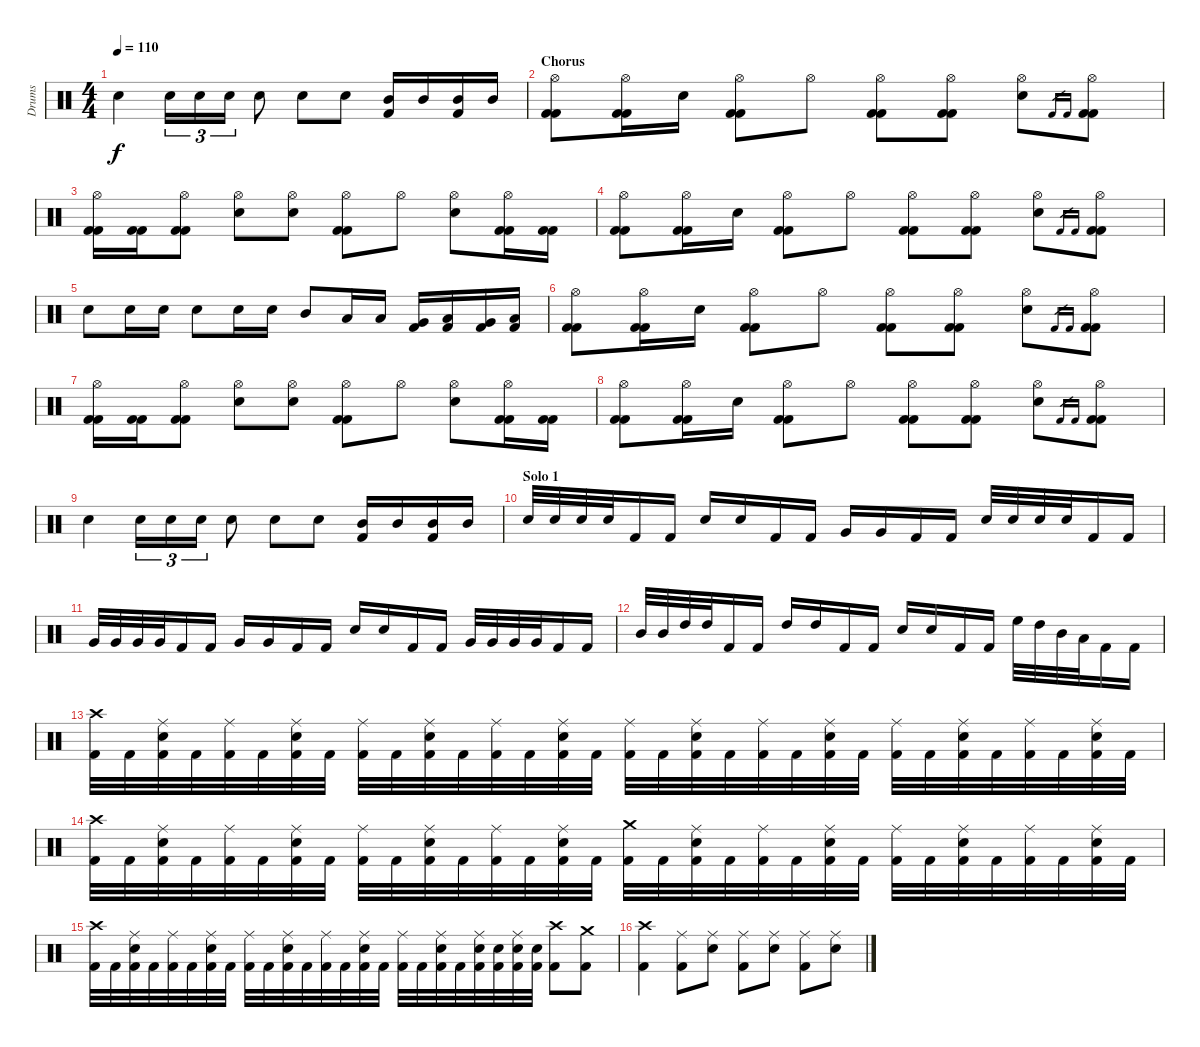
\track ("Drums" "Drums") {instrument percussion}
\staff {score}
\articulation defaults
\ts (4 4)
\tempo 110
\clef neutral
\ks c "Snare (hit) 2".4{dy f} "Snare (hit) 2".16{tu (3 2)} "Snare (hit) 2".16{tu (3 2)} "Snare (hit) 2".16{tu (3 2)} "Snare (hit) 2".8 "Snare (hit) 2".8 "Snare (hit) 2".8
("Mid Tom (hit)" "Kick (hit) 2").16 "Mid Tom (hit)".16 ("Mid Tom (hit)" "Kick (hit) 2").16 "Mid Tom (hit)".16 |
\section ("" "Chorus")
("Hi-Hat (open)" "Kick (hit) 2" "Kick (hit) 2").8 ("Hi-Hat (open)" "Kick (hit) 2" "Kick (hit) 2").16 "Electric Snare (hit)".16 ("Hi-Hat (open)" "Kick (hit) 2" "Kick (hit) 2").8 "Hi-Hat (open)".8 ("Hi-Hat (open)" "Kick (hit) 2" "Kick (hit) 2").8 ("Hi-Hat (open)" "Kick (hit) 2" "Kick (hit) 2").8 ("Hi-Hat (open)" "Electric Snare (hit)").8 "Kick (hit) 2".16{gr} "Kick (hit) 2".16{gr} ("Hi-Hat (open)" "Kick (hit) 2" "Kick (hit) 2").8 |
("Hi-Hat (open)" "Kick (hit) 2" "Kick (hit) 2").16 ("Kick (hit) 2" "Kick (hit) 2").16 ("Hi-Hat (open)" "Kick (hit) 2" "Kick (hit) 2").8 ("Hi-Hat (open)" "Electric Snare (hit)").8 ("Hi-Hat (open)" "Electric Snare (hit)").8 ("Hi-Hat (open)" "Kick (hit) 2" "Kick (hit) 2").8 "Hi-Hat (open)".8 ("Hi-Hat (open)" "Electric Snare (hit)").8 ("Hi-Hat (open)" "Kick (hit) 2" "Kick (hit) 2").16 ("Kick (hit) 2" "Kick (hit) 2").16 |
("Hi-Hat (open)" "Kick (hit) 2" "Kick (hit) 2").8 ("Hi-Hat (open)" "Kick (hit) 2" "Kick (hit) 2").16 "Electric Snare (hit)".16 ("Hi-Hat (open)" "Kick (hit) 2" "Kick (hit) 2").8 "Hi-Hat (open)".8 ("Hi-Hat (open)" "Kick (hit) 2" "Kick (hit) 2").8 ("Hi-Hat (open)" "Kick (hit) 2" "Kick (hit) 2").8 ("Hi-Hat (open)" "Electric Snare (hit)").8 "Kick (hit) 2".16{gr} "Kick (hit) 2".16{gr} ("Hi-Hat (open)" "Kick (hit) 2" "Kick (hit) 2").8 |
"Snare (hit) 2".8 "Snare (hit) 2".16 "Snare (hit) 2".16 "Snare (hit) 2".8 "Snare (hit) 2".16 "Snare (hit) 2".16 "Mid Tom (hit)".8 "Low Tom (hit)".16 "Low Tom (hit)".16 ("Very Low Tom (hit)" "Kick (hit) 2").16 ("Low Floor Tom (hit)" "Kick (hit) 2").16 ("Very Low Tom (hit)" "Kick (hit) 2").16 ("Low Floor Tom (hit)" "Kick (hit) 2").16 |
("Hi-Hat (open)" "Kick (hit) 2" "Kick (hit) 2").8 ("Hi-Hat (open)" "Kick (hit) 2" "Kick (hit) 2").16 "Electric Snare (hit)".16 ("Hi-Hat (open)" "Kick (hit) 2" "Kick (hit) 2").8 "Hi-Hat (open)".8 ("Hi-Hat (open)" "Kick (hit) 2" "Kick (hit) 2").8 ("Hi-Hat (open)" "Kick (hit) 2" "Kick (hit) 2").8 ("Hi-Hat (open)" "Electric Snare (hit)").8 "Kick (hit) 2".16{gr} "Kick (hit) 2".16{gr} ("Hi-Hat (open)" "Kick (hit) 2" "Kick (hit) 2").8 |
("Hi-Hat (open)" "Kick (hit) 2" "Kick (hit) 2").16 ("Kick (hit) 2" "Kick (hit) 2").16 ("Hi-Hat (open)" "Kick (hit) 2" "Kick (hit) 2").8 ("Hi-Hat (open)" "Electric Snare (hit)").8 ("Hi-Hat (open)" "Electric Snare (hit)").8 ("Hi-Hat (open)" "Kick (hit) 2" "Kick (hit) 2").8 "Hi-Hat (open)".8 ("Hi-Hat (open)" "Electric Snare (hit)").8 ("Hi-Hat (open)" "Kick (hit) 2" "Kick (hit) 2").16 ("Kick (hit) 2" "Kick (hit) 2").16 |
("Hi-Hat (open)" "Kick (hit) 2" "Kick (hit) 2").8 ("Hi-Hat (open)" "Kick (hit) 2" "Kick (hit) 2").16 "Electric Snare (hit)".16 ("Hi-Hat (open)" "Kick (hit) 2" "Kick (hit) 2").8 "Hi-Hat (open)".8 ("Hi-Hat (open)" "Kick (hit) 2" "Kick (hit) 2").8 ("Hi-Hat (open)" "Kick (hit) 2" "Kick (hit) 2").8 ("Hi-Hat (open)" "Electric Snare (hit)").8 "Kick (hit) 2".16{gr} "Kick (hit) 2".16{gr} ("Hi-Hat (open)" "Kick (hit) 2" "Kick (hit) 2").8 |
"Snare (hit) 2".4 "Snare (hit) 2".16{tu (3 2)} "Snare (hit) 2".16{tu (3 2)} "Snare (hit) 2".16{tu (3 2)} "Snare (hit) 2".8 "Snare (hit) 2".8 "Snare (hit) 2".8 ("Mid Tom (hit)" "Kick (hit) 2").16 "Mid Tom (hit)".16 ("Mid Tom (hit)" "Kick (hit) 2").16 "Mid Tom (hit)".16 |
\section ("" "Solo 1")
"Electric Snare (hit)".32 "Electric Snare (hit)".32 "Electric Snare (hit)".32 "Electric Snare (hit)".32 "Kick (hit) 2".16 "Kick (hit) 2".16 "Electric Snare (hit)".16 "Electric Snare (hit)".16 "Kick (hit) 2".16 "Kick (hit) 2".16 "Very Low Tom (hit)".16 "Very Low Tom (hit)".16 "Kick (hit) 2".16 "Kick (hit) 2".16 "Electric Snare (hit)".32 "Electric Snare (hit)".32 "Electric Snare (hit)".32 "Electric Snare (hit)".32 "Kick (hit) 2".16 "Kick (hit) 2".16 |
"Very Low Tom (hit)".32 "Very Low Tom (hit)".32 "Very Low Tom (hit)".32 "Very Low Tom (hit)".32 "Kick (hit) 2".16 "Kick (hit) 2".16 "Very Low Tom (hit)".16 "Very Low Tom (hit)".16 "Kick (hit) 2".16 "Kick (hit) 2".16 "Electric Snare (hit)".16 "Electric Snare (hit)".16 "Kick (hit) 2".16 "Kick (hit) 2".16 "Very Low Tom (hit)".32 "Very Low Tom (hit)".32 "Very Low Tom (hit)".32 "Very Low Tom (hit)".32 "Kick (hit) 2".16 "Kick (hit) 2".16 |
"Mid Tom (hit)".32 "Mid Tom (hit)".32 "High Tom (hit)".32 "High Tom (hit)".32 "Kick (hit) 2".16 "Kick (hit) 2".16 "High Tom (hit)".16 "High Tom (hit)".16 "Kick (hit) 2".16 "Kick (hit) 2".16 "Snare (hit) 2".16 "Electric Snare (hit)".16 "Kick (hit) 2".16 "Kick (hit) 2".16 "High Floor Tom (hit)".32 "High Tom (hit)".32 "Mid Tom (hit)".32 "Low Tom (hit)".32 "Kick (hit) 2".16 "Kick (hit) 2".16 |
("Crash high (hit)" "Kick (hit) 2").32 "Kick (hit) 2".32 ("Ride (middle)" "Electric Snare (hit)" "Kick (hit) 2").32 "Kick (hit) 2".32 ("Ride (middle)" "Kick (hit) 2").32 "Kick (hit) 2".32 ("Ride (middle)" "Electric Snare (hit)" "Kick (hit) 2").32 "Kick (hit) 2".32 ("Ride (middle)" "Kick (hit) 2").32 "Kick (hit) 2".32 ("Ride (middle)" "Electric Snare (hit)" "Kick (hit) 2").32 "Kick (hit) 2".32 ("Ride (middle)" "Kick (hit) 2").32 "Kick (hit) 2".32 ("Ride (middle)" "Electric Snare (hit)" "Kick (hit) 2").32 "Kick (hit) 2".32 ("Ride (middle)" "Kick (hit) 2").32 "Kick (hit) 2".32 ("Ride (middle)" "Electric Snare (hit)" "Kick (hit) 2").32 "Kick (hit) 2".32 ("Ride (middle)" "Kick (hit) 2").32 "Kick (hit) 2".32 ("Ride (middle)" "Electric Snare (hit)" "Kick (hit) 2").32 "Kick (hit) 2".32 ("Ride (middle)" "Kick (hit) 2").32 "Kick (hit) 2".32 ("Ride (middle)" "Electric Snare (hit)" "Kick (hit) 2").32 "Kick (hit) 2".32 ("Ride (middle)" "Kick (hit) 2").32 "Kick (hit) 2".32 ("Ride (middle)" "Electric Snare (hit)" "Kick (hit) 2").32 "Kick (hit) 2".32 |
("Crash high (hit)" "Kick (hit) 2").32 "Kick (hit) 2".32 ("Ride (middle)" "Electric Snare (hit)" "Kick (hit) 2").32 "Kick (hit) 2".32 ("Ride (middle)" "Kick (hit) 2").32 "Kick (hit) 2".32 ("Ride (middle)" "Electric Snare (hit)" "Kick (hit) 2").32 "Kick (hit) 2".32 ("Ride (middle)" "Kick (hit) 2").32 "Kick (hit) 2".32 ("Ride (middle)" "Electric Snare (hit)" "Kick (hit) 2").32 "Kick (hit) 2".32 ("Ride (middle)" "Kick (hit) 2").32 "Kick (hit) 2".32 ("Ride (middle)" "Electric Snare (hit)" "Kick (hit) 2").32 "Kick (hit) 2".32 ("Crash medium (hit)" "Kick (hit) 2").32 "Kick (hit) 2".32 ("Ride (middle)" "Electric Snare (hit)" "Kick (hit) 2").32 "Kick (hit) 2".32 ("Ride (middle)" "Kick (hit) 2").32 "Kick (hit) 2".32 ("Ride (middle)" "Electric Snare (hit)" "Kick (hit) 2").32 "Kick (hit) 2".32 ("Ride (middle)" "Kick (hit) 2").32 "Kick (hit) 2".32 ("Ride (middle)" "Electric Snare (hit)" "Kick (hit) 2").32 "Kick (hit) 2".32 ("Ride (middle)" "Kick (hit) 2").32 "Kick (hit) 2".32 ("Ride (middle)" "Electric Snare (hit)" "Kick (hit) 2").32 "Kick (hit) 2".32 |
("Crash high (hit)" "Kick (hit) 2").32 "Kick (hit) 2".32 ("Ride (middle)" "Electric Snare (hit)" "Kick (hit) 2").32 "Kick (hit) 2".32 ("Ride (middle)" "Kick (hit) 2").32 "Kick (hit) 2".32 ("Ride (middle)" "Electric Snare (hit)" "Kick (hit) 2").32 "Kick (hit) 2".32 ("Ride (middle)" "Kick (hit) 2").32 "Kick (hit) 2".32 ("Ride (middle)" "Electric Snare (hit)" "Kick (hit) 2").32 "Kick (hit) 2".32 ("Ride (middle)" "Kick (hit) 2").32 "Kick (hit) 2".32 ("Ride (middle)" "Electric Snare (hit)" "Kick (hit) 2").32 "Kick (hit) 2".32 ("Ride (middle)" "Kick (hit) 2").32 "Kick (hit) 2".32 ("Ride (middle)" "Electric Snare (hit)" "Kick (hit) 2").32 "Kick (hit) 2".32 ("Ride (middle)" "Electric Snare (hit)" "Kick (hit) 2").32 ("Electric Snare (hit)" "Kick (hit) 2").32 ("Ride (middle)" "Electric Snare (hit)" "Kick (hit) 2").32 ("Electric Snare (hit)" "Kick (hit) 2").32 ("Crash high (hit)" "Kick (hit) 2").8 ("Crash medium (hit)" "Kick (hit) 2").8 |
("Crash high (hit)" "Kick (hit) 2").4 ("Ride (middle)" "Kick (hit) 2").8 ("Ride (middle)" "Electric Snare (hit)").8 ("Ride (middle)" "Kick (hit) 2").8 ("Ride (middle)" "Electric Snare (hit)").8 ("Ride (middle)" "Kick (hit) 2").8 ("Ride (middle)" "Electric Snare (hit)").8
